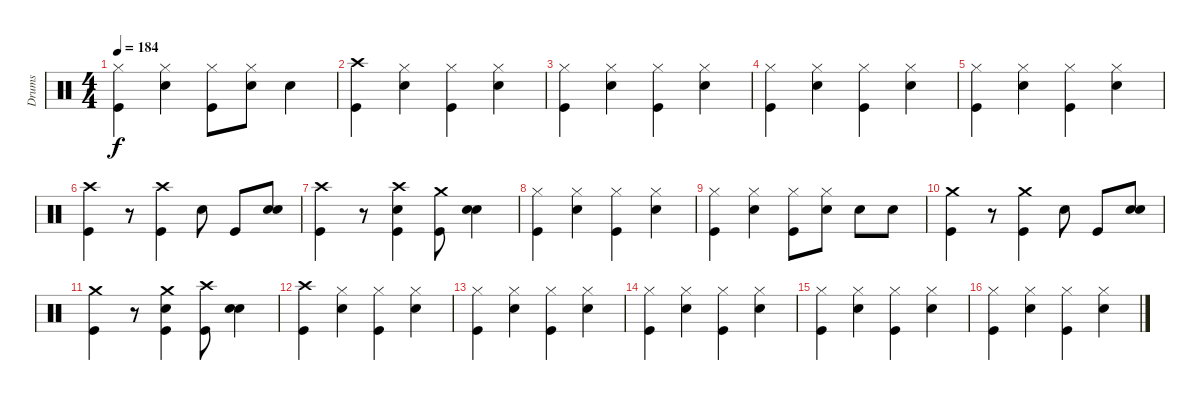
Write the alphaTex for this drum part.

\track ("Drums" "Drums") {instrument percussion}
\staff {score}
\articulation defaults
\ts (4 4)
\tempo 184
\clef neutral
\ks c
("Hi-Hat (closed)" "Kick (hit)").4{dy f} ("Hi-Hat (closed)" "Electric Snare (hit)").4 ("Hi-Hat (closed)" "Kick (hit)").8 ("Hi-Hat (closed)" "Electric Snare (hit)").8 "Electric Snare (hit)".4 |
("Crash high (hit)" "Kick (hit)").4 ("Hi-Hat (closed)" "Electric Snare (hit)").4 ("Hi-Hat (closed)" "Kick (hit)").4 ("Hi-Hat (closed)" "Electric Snare (hit)").4 |
("Hi-Hat (closed)" "Kick (hit)").4 ("Hi-Hat (closed)" "Electric Snare (hit)").4 ("Hi-Hat (closed)" "Kick (hit)").4 ("Hi-Hat (closed)" "Electric Snare (hit)").4 |
("Hi-Hat (closed)" "Kick (hit)").4 ("Hi-Hat (closed)" "Electric Snare (hit)").4 ("Hi-Hat (closed)" "Kick (hit)").4 ("Hi-Hat (closed)" "Electric Snare (hit)").4 |
("Hi-Hat (closed)" "Kick (hit)").4 ("Hi-Hat (closed)" "Electric Snare (hit)").4 ("Hi-Hat (closed)" "Kick (hit)").4 ("Hi-Hat (closed)" "Electric Snare (hit)").4 |
("Crash high (hit)" "Kick (hit)").4 r.8 ("Crash high (hit)" "Kick (hit)").4 "Electric Snare (hit)".8 "Kick (hit)".8 ("Electric Snare (hit)" "Electric Snare (hit)").8 |
("Crash high (hit)" "Kick (hit)").4 r.8 ("Crash high (hit)" "Electric Snare (hit)" "Kick (hit)").4 ("Crash medium (hit)" "Kick (hit)").8 ("Electric Snare (hit)" "Electric Snare (hit)").4 |
("Hi-Hat (closed)" "Kick (hit)").4 ("Hi-Hat (closed)" "Electric Snare (hit)").4 ("Hi-Hat (closed)" "Kick (hit)").4 ("Hi-Hat (closed)" "Electric Snare (hit)").4 |
("Hi-Hat (closed)" "Kick (hit)").4 ("Hi-Hat (closed)" "Electric Snare (hit)").4 ("Hi-Hat (closed)" "Kick (hit)").8 ("Hi-Hat (closed)" "Electric Snare (hit)").8 "Electric Snare (hit)".8 "Electric Snare (hit)".8 |
("Crash medium (hit)" "Kick (hit)").4 r.8 ("Crash medium (hit)" "Kick (hit)").4 "Electric Snare (hit)".8 "Kick (hit)".8 ("Electric Snare (hit)" "Electric Snare (hit)").8 |
("Crash medium (hit)" "Kick (hit)").4 r.8 ("Crash medium (hit)" "Electric Snare (hit)" "Kick (hit)").4 ("Crash high (hit)" "Kick (hit)").8 ("Electric Snare (hit)" "Electric Snare (hit)").4 |
("Crash high (hit)" "Kick (hit)").4 ("Hi-Hat (closed)" "Electric Snare (hit)").4 ("Hi-Hat (closed)" "Kick (hit)").4 ("Hi-Hat (closed)" "Electric Snare (hit)").4 |
("Hi-Hat (closed)" "Kick (hit)").4 ("Hi-Hat (closed)" "Electric Snare (hit)").4 ("Hi-Hat (closed)" "Kick (hit)").4 ("Hi-Hat (closed)" "Electric Snare (hit)").4 |
("Hi-Hat (closed)" "Kick (hit)").4 ("Hi-Hat (closed)" "Electric Snare (hit)").4 ("Hi-Hat (closed)" "Kick (hit)").4 ("Hi-Hat (closed)" "Electric Snare (hit)").4 |
("Hi-Hat (closed)" "Kick (hit)").4 ("Hi-Hat (closed)" "Electric Snare (hit)").4 ("Hi-Hat (closed)" "Kick (hit)").4 ("Hi-Hat (closed)" "Electric Snare (hit)").4 |
("Hi-Hat (closed)" "Kick (hit)").4 ("Hi-Hat (closed)" "Electric Snare (hit)").4 ("Hi-Hat (closed)" "Kick (hit)").4 ("Hi-Hat (closed)" "Electric Snare (hit)").4
